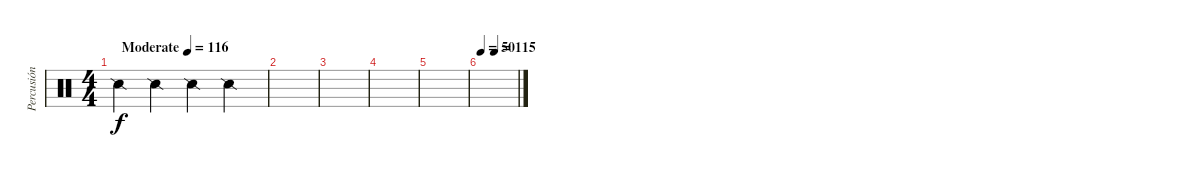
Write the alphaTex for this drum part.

\track ("Percusión" "Percusión") {instrument percussion}
\staff {score}
\articulation defaults
\ts (4 4)
\tempo (116 "Moderate")
\clef neutral
\ks c "Snare (side stick) 2".4{dy f} "Snare (side stick) 2".4 "Snare (side stick) 2".4 "Snare (side stick) 2".4
|
|
|
|
|
\tempo 50
\tempo (115 0.375)
